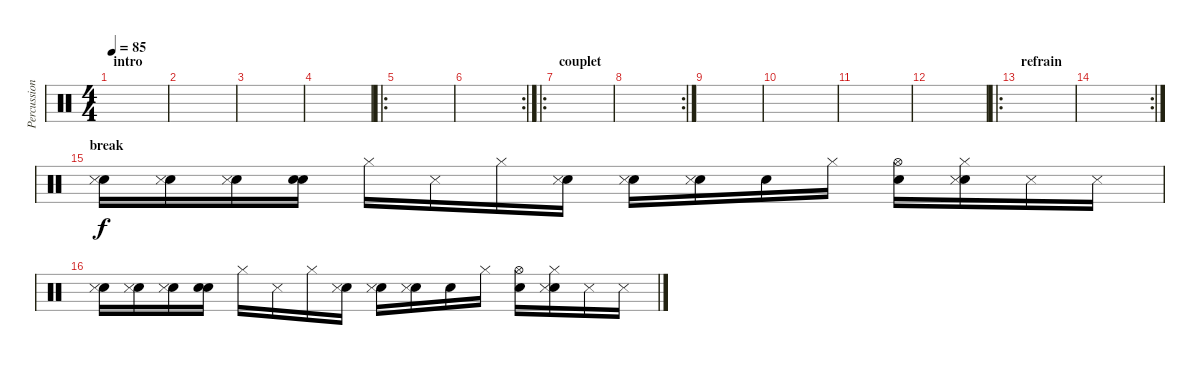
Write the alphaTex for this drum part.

\track ("Percussions" "Percussion") {instrument percussion}
\staff {score}
\articulation defaults
\ts (4 4)
\section ("" "intro")
\tempo 85
\clef neutral
\ks c
|
|
|
|
\ro
|
\rc 2
|
\ro
\section ("" "couplet")
|
\rc 2
|
|
|
|
|
\ro
\section ("" "refrain")
|
\rc 2
|
\section ("" "break")
("Metronome (bell)" "Snare (side stick) 3").16 ("Metronome (bell)" "Snare (side stick) 3").16 ("Metronome (bell)" "Snare (side stick) 3").16 ("Metronome (bell)" "Snare (hit) 2").16 "Hi-Hat (closed)".16 "Snare (side stick) 3".16 "Hi-Hat (closed)".16 ("Metronome (bell)" "Snare (side stick) 3").16 ("Metronome (bell)" "Snare (side stick) 3").16 ("Metronome (bell)" "Snare (side stick) 3").16 "Snare (hit) 2".16 "Hi-Hat (closed)".16 ("Metronome (bell)" "Hi-Hat (open)").16 ("Metronome (bell)" "Hi-Hat (closed)" "Snare (side stick) 3").16 "Snare (side stick) 3".16 "Snare (side stick) 3".16 |
("Metronome (bell)" "Snare (side stick) 3").16 ("Metronome (bell)" "Snare (side stick) 3").16 ("Metronome (bell)" "Snare (side stick) 3").16 ("Metronome (bell)" "Snare (hit) 2").16 "Hi-Hat (closed)".16 "Snare (side stick) 3".16 "Hi-Hat (closed)".16 ("Metronome (bell)" "Snare (side stick) 3").16 ("Metronome (bell)" "Snare (side stick) 3").16 ("Metronome (bell)" "Snare (side stick) 3").16 "Snare (hit) 2".16 "Hi-Hat (closed)".16 ("Metronome (bell)" "Hi-Hat (open)").16 ("Metronome (bell)" "Hi-Hat (closed)" "Snare (side stick) 3").16 "Snare (side stick) 3".16 "Snare (side stick) 3".16
